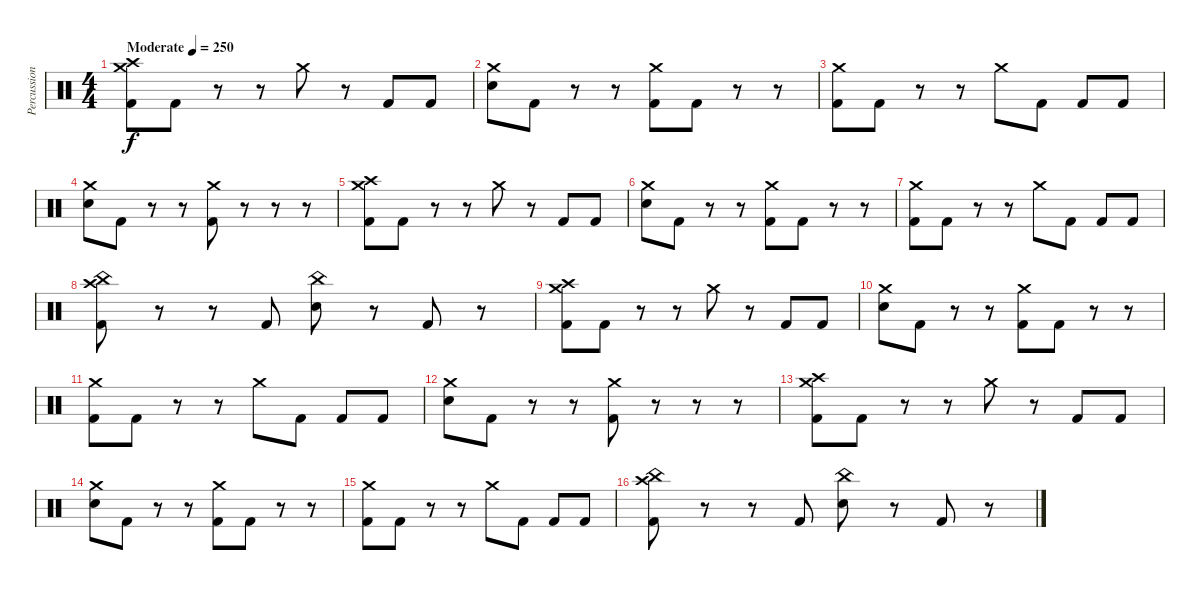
\track ("Percussion" "Percussion") {instrument percussion}
\staff {score}
\articulation defaults
\ts (4 4)
\tempo (250 "Moderate")
\clef neutral
\ks c
("Crash high (hit)" "Crash medium (hit)" "Kick (hit) 2").8{dy f} "Kick (hit) 2".8 r.8 r.8 "Crash medium (hit)".8 r.8 "Kick (hit) 2".8 "Kick (hit) 2".8 |
("Crash medium (hit)" "Electric Snare (hit)").8 "Kick (hit) 2".8 r.8 r.8 ("Crash medium (hit)" "Kick (hit) 2").8 "Kick (hit) 2".8 r.8 r.8 |
("Crash medium (hit)" "Kick (hit) 2").8 "Kick (hit) 2".8 r.8 r.8 "Crash medium (hit)".8 "Kick (hit) 2".8 "Kick (hit) 2".8 "Kick (hit) 2".8 |
("Crash medium (hit)" "Electric Snare (hit)").8 "Kick (hit) 2".8 r.8 r.8 ("Crash medium (hit)" "Kick (hit) 2").8 r.8 r.8 r.8 |
("Crash high (hit)" "Crash medium (hit)" "Kick (hit) 2").8 "Kick (hit) 2".8 r.8 r.8 "Crash medium (hit)".8 r.8 "Kick (hit) 2".8 "Kick (hit) 2".8 |
("Crash medium (hit)" "Electric Snare (hit)").8 "Kick (hit) 2".8 r.8 r.8 ("Crash medium (hit)" "Kick (hit) 2").8 "Kick (hit) 2".8 r.8 r.8 |
("Crash medium (hit)" "Kick (hit) 2").8 "Kick (hit) 2".8 r.8 r.8 "Crash medium (hit)".8 "Kick (hit) 2".8 "Kick (hit) 2".8 "Kick (hit) 2".8 |
("Crash high (hit)" "China (hit)" "Kick (hit) 2").8 r.8 r.8 "Kick (hit) 2".8 ("China (hit)" "Electric Snare (hit)").8 r.8 "Kick (hit) 2".8 r.8 |
("Crash high (hit)" "Crash medium (hit)" "Kick (hit) 2").8 "Kick (hit) 2".8 r.8 r.8 "Crash medium (hit)".8 r.8 "Kick (hit) 2".8 "Kick (hit) 2".8 |
("Crash medium (hit)" "Electric Snare (hit)").8 "Kick (hit) 2".8 r.8 r.8 ("Crash medium (hit)" "Kick (hit) 2").8 "Kick (hit) 2".8 r.8 r.8 |
("Crash medium (hit)" "Kick (hit) 2").8 "Kick (hit) 2".8 r.8 r.8 "Crash medium (hit)".8 "Kick (hit) 2".8 "Kick (hit) 2".8 "Kick (hit) 2".8 |
("Crash medium (hit)" "Electric Snare (hit)").8 "Kick (hit) 2".8 r.8 r.8 ("Crash medium (hit)" "Kick (hit) 2").8 r.8 r.8 r.8 |
("Crash high (hit)" "Crash medium (hit)" "Kick (hit) 2").8 "Kick (hit) 2".8 r.8 r.8 "Crash medium (hit)".8 r.8 "Kick (hit) 2".8 "Kick (hit) 2".8 |
("Crash medium (hit)" "Electric Snare (hit)").8 "Kick (hit) 2".8 r.8 r.8 ("Crash medium (hit)" "Kick (hit) 2").8 "Kick (hit) 2".8 r.8 r.8 |
("Crash medium (hit)" "Kick (hit) 2").8 "Kick (hit) 2".8 r.8 r.8 "Crash medium (hit)".8 "Kick (hit) 2".8 "Kick (hit) 2".8 "Kick (hit) 2".8 |
("Crash high (hit)" "China (hit)" "Kick (hit) 2").8 r.8 r.8 "Kick (hit) 2".8 ("China (hit)" "Electric Snare (hit)").8 r.8 "Kick (hit) 2".8 r.8
